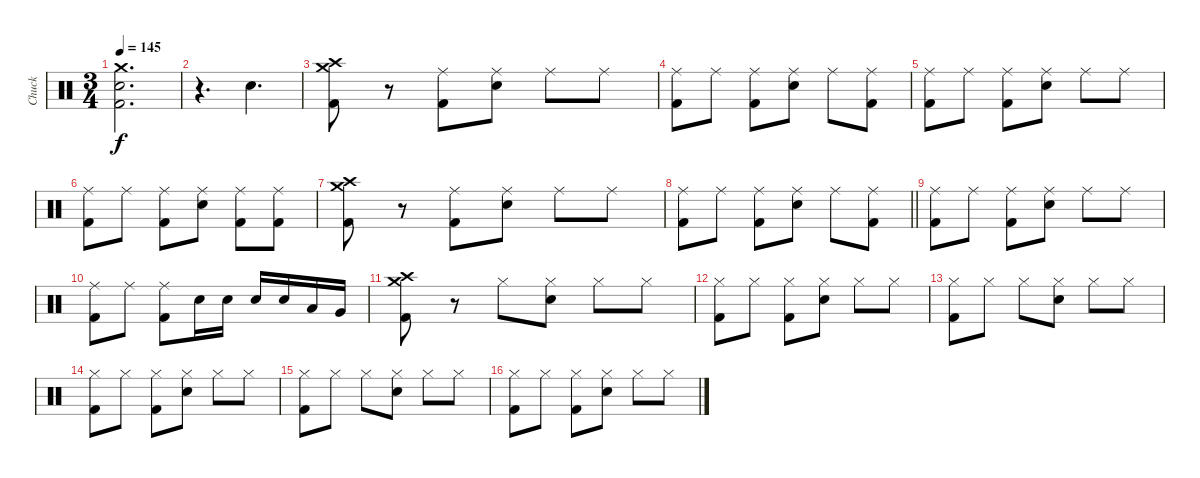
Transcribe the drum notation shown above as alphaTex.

\track ("Chuck" "Chuck") {instrument percussion}
\staff {score}
\articulation defaults
\ts (3 4)
\tempo 145
\clef neutral
\ks c
("Crash medium (hit)" "Electric Snare (hit)" "Kick (hit) 2").2{d dy f} |
r.4{d} "Electric Snare (hit)".4{d} |
("Crash medium (hit)" "Crash high (hit)" "Kick (hit) 2").8 r.8 ("Ride (middle)" "Kick (hit) 2").8 ("Ride (middle)" "Electric Snare (hit)").8 "Ride (middle)".8 "Ride (middle)".8 |
("Ride (middle)" "Kick (hit) 2").8 "Ride (middle)".8 ("Ride (middle)" "Kick (hit) 2").8 ("Ride (middle)" "Electric Snare (hit)").8 "Ride (middle)".8 ("Ride (middle)" "Kick (hit) 2").8 |
("Ride (middle)" "Kick (hit) 2").8 "Ride (middle)".8 ("Ride (middle)" "Kick (hit) 2").8 ("Ride (middle)" "Electric Snare (hit)").8 "Ride (middle)".8 "Ride (middle)".8 |
("Ride (middle)" "Kick (hit) 2").8 "Ride (middle)".8 ("Ride (middle)" "Kick (hit) 2").8 ("Ride (middle)" "Electric Snare (hit)").8 ("Ride (middle)" "Kick (hit) 2").8 ("Ride (middle)" "Kick (hit) 2").8 |
("Crash medium (hit)" "Crash high (hit)" "Kick (hit) 2").8 r.8 ("Ride (middle)" "Kick (hit) 2").8 ("Ride (middle)" "Electric Snare (hit)").8 "Ride (middle)".8 "Ride (middle)".8 |
\barLineRight lightlight
("Ride (middle)" "Kick (hit) 2").8 "Ride (middle)".8 ("Ride (middle)" "Kick (hit) 2").8 ("Ride (middle)" "Electric Snare (hit)").8 "Ride (middle)".8 ("Ride (middle)" "Kick (hit) 2").8 |
("Ride (middle)" "Kick (hit) 2").8 "Ride (middle)".8 ("Ride (middle)" "Kick (hit) 2").8 ("Ride (middle)" "Electric Snare (hit)").8 "Ride (middle)".8 "Ride (middle)".8 |
("Ride (middle)" "Kick (hit) 2").8 "Ride (middle)".8 ("Ride (middle)" "Kick (hit) 2").8 "Electric Snare (hit)".16 "Electric Snare (hit)".16 "Electric Snare (hit)".16 "Electric Snare (hit)".16 "Low Tom (hit)".16 "Very Low Tom (hit)".16 |
("Crash medium (hit)" "Crash high (hit)" "Kick (hit) 2").8 r.8 "Hi-Hat (closed)".8 ("Hi-Hat (closed)" "Electric Snare (hit)").8 "Hi-Hat (closed)".8 "Hi-Hat (closed)".8 |
("Hi-Hat (closed)" "Kick (hit) 2").8 "Hi-Hat (closed)".8 ("Hi-Hat (closed)" "Kick (hit) 2").8 ("Hi-Hat (closed)" "Electric Snare (hit)").8 "Hi-Hat (closed)".8 "Hi-Hat (closed)".8 |
("Hi-Hat (closed)" "Kick (hit) 2").8 "Hi-Hat (closed)".8 "Hi-Hat (closed)".8 ("Hi-Hat (closed)" "Electric Snare (hit)").8 "Hi-Hat (closed)".8 "Hi-Hat (closed)".8 |
("Hi-Hat (closed)" "Kick (hit) 2").8 "Hi-Hat (closed)".8 ("Hi-Hat (closed)" "Kick (hit) 2").8 ("Hi-Hat (closed)" "Electric Snare (hit)").8 "Hi-Hat (closed)".8 "Hi-Hat (closed)".8 |
("Hi-Hat (closed)" "Kick (hit) 2").8 "Hi-Hat (closed)".8 "Hi-Hat (closed)".8 ("Hi-Hat (closed)" "Electric Snare (hit)").8 "Hi-Hat (closed)".8 "Hi-Hat (closed)".8 |
("Hi-Hat (closed)" "Kick (hit) 2").8 "Hi-Hat (closed)".8 ("Hi-Hat (closed)" "Kick (hit) 2").8 ("Hi-Hat (closed)" "Electric Snare (hit)").8 "Hi-Hat (closed)".8 "Hi-Hat (closed)".8
